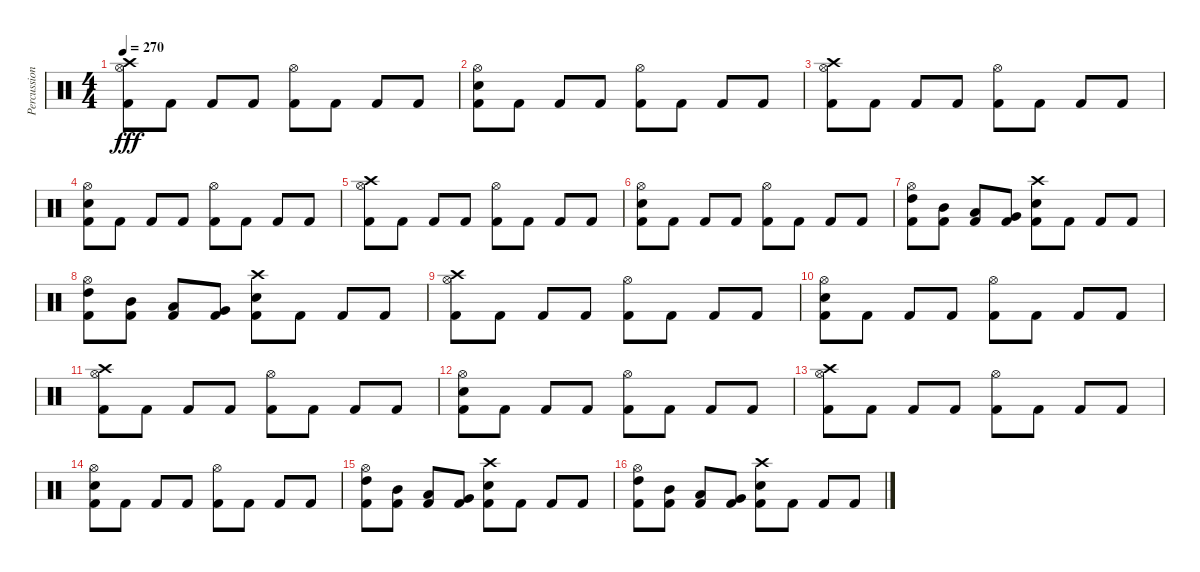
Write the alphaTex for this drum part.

\track ("Percussion" "Percussion") {instrument percussion}
\staff {score}
\articulation defaults
\ts (4 4)
\tempo 270
\clef neutral
\ks c
("Hi-Hat (open)" "Crash high (hit)" "Kick (hit) 2").8{dy fff} "Kick (hit) 2".8 "Kick (hit) 2".8 "Kick (hit) 2".8 ("Hi-Hat (open)" "Kick (hit) 2").8 "Kick (hit) 2".8 "Kick (hit) 2".8 "Kick (hit) 2".8 |
("Hi-Hat (open)" "Electric Snare (hit)" "Kick (hit) 2").8 "Kick (hit) 2".8 "Kick (hit) 2".8 "Kick (hit) 2".8 ("Hi-Hat (open)" "Kick (hit) 2").8 "Kick (hit) 2".8 "Kick (hit) 2".8 "Kick (hit) 2".8 |
("Hi-Hat (open)" "Crash high (hit)" "Kick (hit) 2").8 "Kick (hit) 2".8 "Kick (hit) 2".8 "Kick (hit) 2".8 ("Hi-Hat (open)" "Kick (hit) 2").8 "Kick (hit) 2".8 "Kick (hit) 2".8 "Kick (hit) 2".8 |
("Hi-Hat (open)" "Electric Snare (hit)" "Kick (hit) 2").8 "Kick (hit) 2".8 "Kick (hit) 2".8 "Kick (hit) 2".8 ("Hi-Hat (open)" "Kick (hit) 2").8 "Kick (hit) 2".8 "Kick (hit) 2".8 "Kick (hit) 2".8 |
("Hi-Hat (open)" "Crash high (hit)" "Kick (hit) 2").8 "Kick (hit) 2".8 "Kick (hit) 2".8 "Kick (hit) 2".8 ("Hi-Hat (open)" "Kick (hit) 2").8 "Kick (hit) 2".8 "Kick (hit) 2".8 "Kick (hit) 2".8 |
("Hi-Hat (open)" "Electric Snare (hit)" "Kick (hit) 2").8 "Kick (hit) 2".8 "Kick (hit) 2".8 "Kick (hit) 2".8 ("Hi-Hat (open)" "Kick (hit) 2").8 "Kick (hit) 2".8 "Kick (hit) 2".8 "Kick (hit) 2".8 |
("Hi-Hat (open)" "High Tom (hit)" "Kick (hit) 2").8 ("Mid Tom (hit)" "Kick (hit) 2").8 ("Low Tom (hit)" "Kick (hit) 2").8 ("Very Low Tom (hit)" "Kick (hit) 2").8 ("Crash high (hit)" "Electric Snare (hit)" "Kick (hit) 2").8 "Kick (hit) 2".8 "Kick (hit) 2".8 "Kick (hit) 2".8 |
("Hi-Hat (open)" "High Tom (hit)" "Kick (hit) 2").8 ("Mid Tom (hit)" "Kick (hit) 2").8 ("Low Tom (hit)" "Kick (hit) 2").8 ("Very Low Tom (hit)" "Kick (hit) 2").8 ("Crash high (hit)" "Electric Snare (hit)" "Kick (hit) 2").8 "Kick (hit) 2".8 "Kick (hit) 2".8 "Kick (hit) 2".8 |
("Hi-Hat (open)" "Crash high (hit)" "Kick (hit) 2").8 "Kick (hit) 2".8 "Kick (hit) 2".8 "Kick (hit) 2".8 ("Hi-Hat (open)" "Kick (hit) 2").8 "Kick (hit) 2".8 "Kick (hit) 2".8 "Kick (hit) 2".8 |
("Hi-Hat (open)" "Electric Snare (hit)" "Kick (hit) 2").8 "Kick (hit) 2".8 "Kick (hit) 2".8 "Kick (hit) 2".8 ("Hi-Hat (open)" "Kick (hit) 2").8 "Kick (hit) 2".8 "Kick (hit) 2".8 "Kick (hit) 2".8 |
("Hi-Hat (open)" "Crash high (hit)" "Kick (hit) 2").8 "Kick (hit) 2".8 "Kick (hit) 2".8 "Kick (hit) 2".8 ("Hi-Hat (open)" "Kick (hit) 2").8 "Kick (hit) 2".8 "Kick (hit) 2".8 "Kick (hit) 2".8 |
("Hi-Hat (open)" "Electric Snare (hit)" "Kick (hit) 2").8 "Kick (hit) 2".8 "Kick (hit) 2".8 "Kick (hit) 2".8 ("Hi-Hat (open)" "Kick (hit) 2").8 "Kick (hit) 2".8 "Kick (hit) 2".8 "Kick (hit) 2".8 |
("Hi-Hat (open)" "Crash high (hit)" "Kick (hit) 2").8 "Kick (hit) 2".8 "Kick (hit) 2".8 "Kick (hit) 2".8 ("Hi-Hat (open)" "Kick (hit) 2").8 "Kick (hit) 2".8 "Kick (hit) 2".8 "Kick (hit) 2".8 |
("Hi-Hat (open)" "Electric Snare (hit)" "Kick (hit) 2").8 "Kick (hit) 2".8 "Kick (hit) 2".8 "Kick (hit) 2".8 ("Hi-Hat (open)" "Kick (hit) 2").8 "Kick (hit) 2".8 "Kick (hit) 2".8 "Kick (hit) 2".8 |
("Hi-Hat (open)" "High Tom (hit)" "Kick (hit) 2").8 ("Mid Tom (hit)" "Kick (hit) 2").8 ("Low Tom (hit)" "Kick (hit) 2").8 ("Very Low Tom (hit)" "Kick (hit) 2").8 ("Crash high (hit)" "Electric Snare (hit)" "Kick (hit) 2").8 "Kick (hit) 2".8 "Kick (hit) 2".8 "Kick (hit) 2".8 |
("Hi-Hat (open)" "High Tom (hit)" "Kick (hit) 2").8 ("Mid Tom (hit)" "Kick (hit) 2").8 ("Low Tom (hit)" "Kick (hit) 2").8 ("Very Low Tom (hit)" "Kick (hit) 2").8 ("Crash high (hit)" "Electric Snare (hit)" "Kick (hit) 2").8 "Kick (hit) 2".8 "Kick (hit) 2".8 "Kick (hit) 2".8
